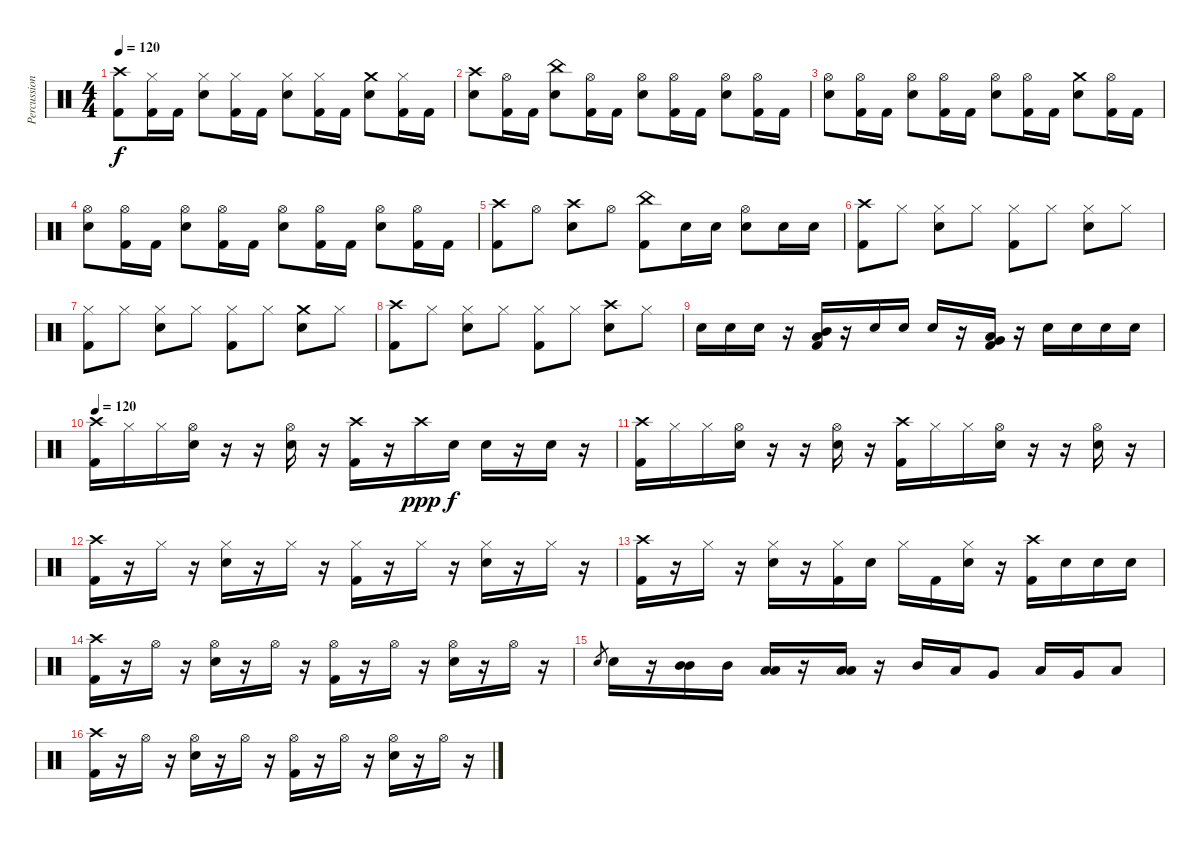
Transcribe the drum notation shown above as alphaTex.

\track ("Percussion" "Percussion") {instrument percussion}
\staff {score}
\articulation defaults
\ts (4 4)
\tempo 120
\clef neutral
\ks c
("Kick (hit) 2" "Crash high (hit)").8{dy f} ("Kick (hit) 2" "Hi-Hat (closed)").16 "Kick (hit) 2".16 ("Snare (hit) 2" "Hi-Hat (closed)").8 ("Kick (hit) 2" "Hi-Hat (closed)").16 "Kick (hit) 2".16 ("Snare (hit) 2" "Hi-Hat (closed)").8 ("Kick (hit) 2" "Hi-Hat (closed)").16 "Kick (hit) 2".16 ("Snare (hit) 2" "Crash medium (hit)").8 ("Kick (hit) 2" "Hi-Hat (closed)").16 "Kick (hit) 2".16 |
("Snare (hit) 2" "Crash high (hit)").8 ("Kick (hit) 2" "Hi-Hat (open)").16 "Kick (hit) 2".16 ("Snare (hit) 2" "China (hit)").8 ("Kick (hit) 2" "Hi-Hat (open)").16 "Kick (hit) 2".16 ("Snare (hit) 2" "Hi-Hat (open)").8 ("Kick (hit) 2" "Hi-Hat (open)").16 "Kick (hit) 2".16 ("Snare (hit) 2" "Hi-Hat (open)").8 ("Kick (hit) 2" "Hi-Hat (open)").16 "Kick (hit) 2".16 |
("Snare (hit) 2" "Hi-Hat (open)").8 ("Kick (hit) 2" "Hi-Hat (open)").16 "Kick (hit) 2".16 ("Snare (hit) 2" "Hi-Hat (open)").8 ("Kick (hit) 2" "Hi-Hat (open)").16 "Kick (hit) 2".16 ("Snare (hit) 2" "Hi-Hat (open)").8 ("Kick (hit) 2" "Hi-Hat (open)").16 "Kick (hit) 2".16 ("Snare (hit) 2" "Crash medium (hit)").8 ("Kick (hit) 2" "Hi-Hat (open)").16 "Kick (hit) 2".16 |
("Snare (hit) 2" "Hi-Hat (open)").8 ("Kick (hit) 2" "Hi-Hat (open)").16 "Kick (hit) 2".16 ("Snare (hit) 2" "Hi-Hat (open)").8 ("Kick (hit) 2" "Hi-Hat (open)").16 "Kick (hit) 2".16 ("Snare (hit) 2" "Hi-Hat (open)").8 ("Kick (hit) 2" "Hi-Hat (open)").16 "Kick (hit) 2".16 ("Snare (hit) 2" "Hi-Hat (open)").8 ("Kick (hit) 2" "Hi-Hat (open)").16 "Kick (hit) 2".16 |
("Kick (hit) 2" "Crash high (hit)").8 "Hi-Hat (open)".8 ("Snare (hit) 2" "Crash high (hit)").8 "Hi-Hat (open)".8 ("Kick (hit) 2" "China (hit)").8 "Snare (hit) 2".16 "Snare (hit) 2".16 ("Snare (hit) 2" "Hi-Hat (open)").8 "Snare (hit) 2".16 "Snare (hit) 2".16 |
("Kick (hit) 2" "Crash high (hit)").8 "Hi-Hat (closed)".8 ("Snare (hit) 2" "Hi-Hat (closed)").8 "Hi-Hat (closed)".8 ("Kick (hit) 2" "Hi-Hat (closed)").8 "Hi-Hat (closed)".8 ("Snare (hit) 2" "Hi-Hat (closed)").8 "Hi-Hat (closed)".8 |
("Kick (hit) 2" "Hi-Hat (closed)").8 "Hi-Hat (closed)".8 ("Snare (hit) 2" "Hi-Hat (closed)").8 "Hi-Hat (closed)".8 ("Kick (hit) 2" "Hi-Hat (closed)").8 "Hi-Hat (closed)".8 ("Snare (hit) 2" "Crash medium (hit)").8 "Hi-Hat (closed)".8 |
("Crash high (hit)" "Kick (hit) 2").8 "Hi-Hat (closed)".8 ("Snare (hit) 2" "Hi-Hat (closed)").8 "Hi-Hat (closed)".8 ("Kick (hit) 2" "Hi-Hat (closed)").8 "Hi-Hat (closed)".8 ("Snare (hit) 2" "Crash high (hit)").8 "Hi-Hat (closed)".8 |
"Snare (hit) 2".16 "Snare (hit) 2".16 "Snare (hit) 2".16 r.16 ("Mid Tom (hit)" "Low Tom (hit)" "Kick (hit) 2").16 r.16 "Snare (hit) 2".16 "Snare (hit) 2".16 "Snare (hit) 2".16 r.16 ("Very Low Tom (hit)" "Low Floor Tom (hit)" "Kick (hit) 2").16 r.16 "Snare (hit) 2".16 "Snare (hit) 2".16 "Snare (hit) 2".16 "Snare (hit) 2".16 |
\tempo 120
("Crash high (hit)" "Kick (hit) 2").16 "Hi-Hat (closed)".16 "Hi-Hat (closed)".16 ("Hi-Hat (open)" "Snare (hit) 2").16 r.16 r.16 ("Hi-Hat (open)" "Snare (hit) 2").16 r.16 ("Crash high (hit)" "Kick (hit) 2").16 r.16 "Crash high (hit)".16{dy ppp} "Snare (hit) 2".16{dy f} "Snare (hit) 2".16 r.16 "Snare (hit) 2".16 r.16 |
("Crash high (hit)" "Kick (hit) 2").16 "Hi-Hat (closed)".16 "Hi-Hat (closed)".16 ("Hi-Hat (open)" "Snare (hit) 2").16 r.16 r.16 ("Hi-Hat (open)" "Snare (hit) 2").16 r.16 ("Crash high (hit)" "Kick (hit) 2").16 "Hi-Hat (closed)".16 "Hi-Hat (closed)".16 ("Hi-Hat (open)" "Snare (hit) 2").16 r.16 r.16 ("Hi-Hat (open)" "Snare (hit) 2").16 r.16 |
("Crash high (hit)" "Kick (hit) 2").16 r.16 "Hi-Hat (closed)".16 r.16 ("Hi-Hat (closed)" "Snare (hit) 2").16 r.16 "Hi-Hat (closed)".16 r.16 ("Hi-Hat (closed)" "Kick (hit) 2").16 r.16 "Hi-Hat (closed)".16 r.16 ("Hi-Hat (closed)" "Snare (hit) 2").16 r.16 "Hi-Hat (closed)".16 r.16 |
("Crash high (hit)" "Kick (hit) 2").16 r.16 "Hi-Hat (closed)".16 r.16 ("Hi-Hat (closed)" "Snare (hit) 2").16 r.16 ("Hi-Hat (closed)" "Kick (hit) 2").16 "Snare (hit) 2".16 "Hi-Hat (closed)".16 "Kick (hit) 2".16 ("Hi-Hat (closed)" "Snare (hit) 2").16 r.16 ("Crash high (hit)" "Kick (hit) 2").16 "Snare (hit) 2".16 "Snare (hit) 2".16 "Snare (hit) 2".16 |
("Crash high (hit)" "Kick (hit) 2").16 r.16 "Hi-Hat (open)".16 r.16 ("Hi-Hat (open)" "Snare (hit) 2").16 r.16 "Hi-Hat (open)".16 r.16 ("Hi-Hat (open)" "Kick (hit) 2").16 r.16 "Hi-Hat (open)".16 r.16 ("Hi-Hat (open)" "Snare (hit) 2").16 r.16 "Hi-Hat (open)".16 r.16 |
"Snare (hit) 2".8{gr} "Snare (hit) 2".16 r.16 ("Mid Tom (hit)" "Mid Tom (hit)").16 "Mid Tom (hit)".16 ("Low Tom (hit)" "Low Tom (hit)").16 r.16 ("Low Tom (hit)" "Low Tom (hit)").16 r.16 "Mid Tom (hit)".16 "Low Tom (hit)".16 "Very Low Tom (hit)".8 "Low Tom (hit)".16 "Very Low Tom (hit)".16 "Low Floor Tom (hit)".8 |
("Crash high (hit)" "Kick (hit) 2").16 r.16 "Hi-Hat (open)".16 r.16 ("Hi-Hat (open)" "Snare (hit) 2").16 r.16 "Hi-Hat (open)".16 r.16 ("Hi-Hat (open)" "Kick (hit) 2").16 r.16 "Hi-Hat (open)".16 r.16 ("Hi-Hat (open)" "Snare (hit) 2").16 r.16 "Hi-Hat (open)".16 r.16
